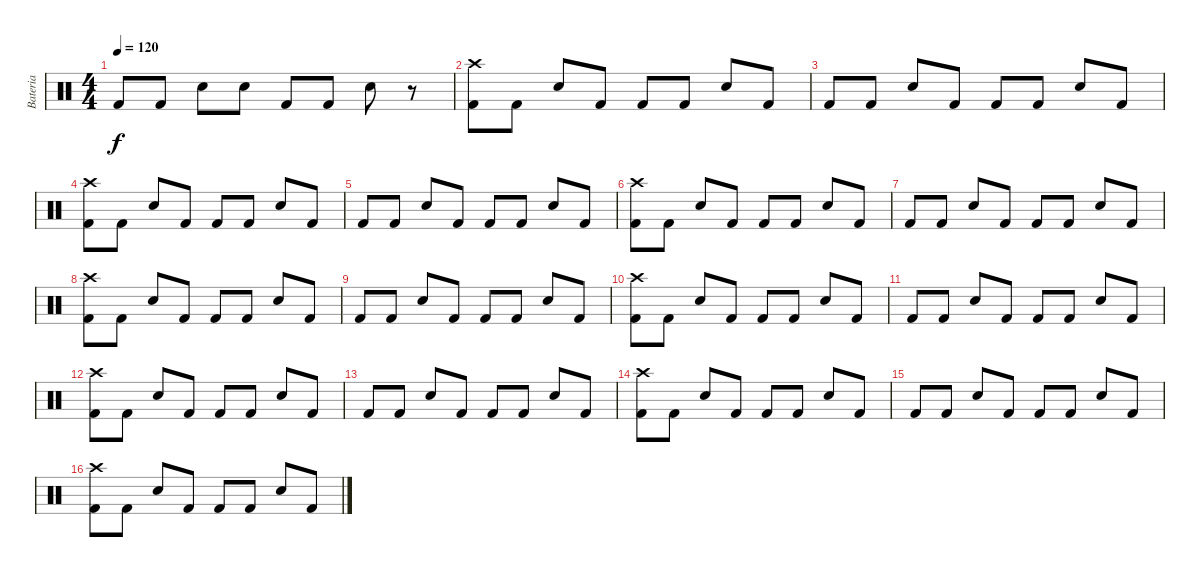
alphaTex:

\track ("Bateria" "Bateria") {instrument percussion}
\staff {score}
\articulation defaults
\ts (4 4)
\tempo 120
\clef neutral
\ks c "Kick (hit) 2".8{dy f} "Kick (hit) 2".8 "Snare (hit) 2".8 "Snare (hit) 2".8 "Kick (hit) 2".8 "Kick (hit) 2".8 "Snare (hit) 2".8
r.8 |
("Kick (hit) 2" "Crash high (hit)").8 "Kick (hit) 2".8 "Snare (hit) 2".8 "Kick (hit) 2".8 "Kick (hit) 2".8 "Kick (hit) 2".8 "Snare (hit) 2".8 "Kick (hit) 2".8 |
"Kick (hit) 2".8 "Kick (hit) 2".8 "Snare (hit) 2".8 "Kick (hit) 2".8 "Kick (hit) 2".8 "Kick (hit) 2".8 "Snare (hit) 2".8 "Kick (hit) 2".8 |
("Kick (hit) 2" "Crash high (hit)").8 "Kick (hit) 2".8 "Snare (hit) 2".8 "Kick (hit) 2".8 "Kick (hit) 2".8 "Kick (hit) 2".8 "Snare (hit) 2".8 "Kick (hit) 2".8 |
"Kick (hit) 2".8 "Kick (hit) 2".8 "Snare (hit) 2".8 "Kick (hit) 2".8 "Kick (hit) 2".8 "Kick (hit) 2".8 "Snare (hit) 2".8 "Kick (hit) 2".8 |
("Kick (hit) 2" "Crash high (hit)").8 "Kick (hit) 2".8 "Snare (hit) 2".8 "Kick (hit) 2".8 "Kick (hit) 2".8 "Kick (hit) 2".8 "Snare (hit) 2".8 "Kick (hit) 2".8 |
"Kick (hit) 2".8 "Kick (hit) 2".8 "Snare (hit) 2".8 "Kick (hit) 2".8 "Kick (hit) 2".8 "Kick (hit) 2".8 "Snare (hit) 2".8 "Kick (hit) 2".8 |
("Kick (hit) 2" "Crash high (hit)").8 "Kick (hit) 2".8 "Snare (hit) 2".8 "Kick (hit) 2".8 "Kick (hit) 2".8 "Kick (hit) 2".8 "Snare (hit) 2".8 "Kick (hit) 2".8 |
"Kick (hit) 2".8 "Kick (hit) 2".8 "Snare (hit) 2".8 "Kick (hit) 2".8 "Kick (hit) 2".8 "Kick (hit) 2".8 "Snare (hit) 2".8 "Kick (hit) 2".8 |
("Kick (hit) 2" "Crash high (hit)").8 "Kick (hit) 2".8 "Snare (hit) 2".8 "Kick (hit) 2".8 "Kick (hit) 2".8 "Kick (hit) 2".8 "Snare (hit) 2".8 "Kick (hit) 2".8 |
"Kick (hit) 2".8 "Kick (hit) 2".8 "Snare (hit) 2".8 "Kick (hit) 2".8 "Kick (hit) 2".8 "Kick (hit) 2".8 "Snare (hit) 2".8 "Kick (hit) 2".8 |
("Kick (hit) 2" "Crash high (hit)").8 "Kick (hit) 2".8 "Snare (hit) 2".8 "Kick (hit) 2".8 "Kick (hit) 2".8 "Kick (hit) 2".8 "Snare (hit) 2".8 "Kick (hit) 2".8 |
"Kick (hit) 2".8 "Kick (hit) 2".8 "Snare (hit) 2".8 "Kick (hit) 2".8 "Kick (hit) 2".8 "Kick (hit) 2".8 "Snare (hit) 2".8 "Kick (hit) 2".8 |
("Kick (hit) 2" "Crash high (hit)").8 "Kick (hit) 2".8 "Snare (hit) 2".8 "Kick (hit) 2".8 "Kick (hit) 2".8 "Kick (hit) 2".8 "Snare (hit) 2".8 "Kick (hit) 2".8 |
"Kick (hit) 2".8 "Kick (hit) 2".8 "Snare (hit) 2".8 "Kick (hit) 2".8 "Kick (hit) 2".8 "Kick (hit) 2".8 "Snare (hit) 2".8 "Kick (hit) 2".8 |
("Kick (hit) 2" "Crash high (hit)").8 "Kick (hit) 2".8 "Snare (hit) 2".8 "Kick (hit) 2".8 "Kick (hit) 2".8 "Kick (hit) 2".8 "Snare (hit) 2".8 "Kick (hit) 2".8
